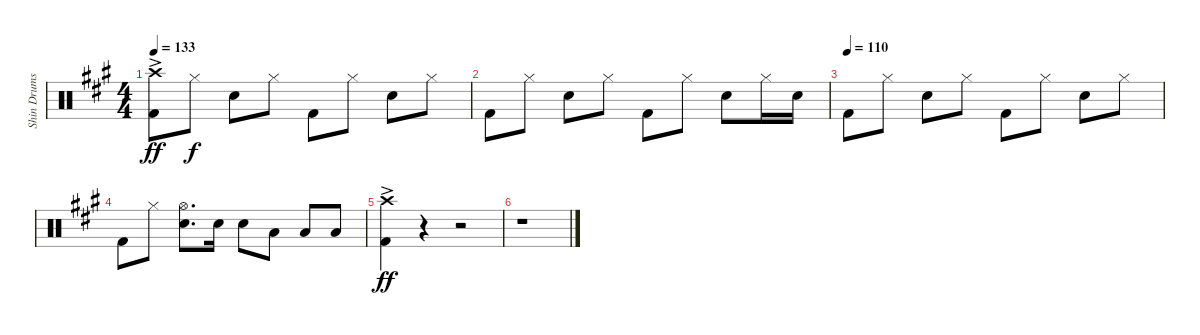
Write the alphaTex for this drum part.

\track ("Shin Drums" "Shin Drums") {instrument percussion}
\staff {score}
\articulation defaults
\ts (4 4)
\tempo 133
\clef neutral
\ks a
("Crash high (hit)"{ac} "Kick (hit) 2").8{dy ff} "Hi-Hat (closed)".8{dy f} "Snare (hit) 2".8 "Hi-Hat (closed)".8 "Kick (hit) 2".8 "Hi-Hat (closed)".8 "Snare (hit) 2".8 "Hi-Hat (closed)".8 |
"Kick (hit) 2".8 "Hi-Hat (closed)".8 "Snare (hit) 2".8 "Hi-Hat (closed)".8 "Kick (hit) 2".8 "Hi-Hat (closed)".8 "Snare (hit) 2".8 "Hi-Hat (closed)".16 "Snare (hit) 2".16 |
\tempo (110)
"Kick (hit) 2".8 "Hi-Hat (closed)".8 "Snare (hit) 2".8 "Hi-Hat (closed)".8 "Kick (hit) 2".8 "Hi-Hat (closed)".8 "Snare (hit) 2".8 "Hi-Hat (closed)".8 |
"Kick (hit) 2".8 "Hi-Hat (closed)".8 ("Hi-Hat (open)" "Snare (hit) 2").8{d} "Snare (hit) 2".16 "Snare (hit) 2".8 "Low Tom (hit)".8 "Low Tom (hit)".8 "Low Floor Tom (hit)".8 |
("Crash high (hit)"{ac} "Kick (hit) 2").4{dy ff} r.4 r.2 |
r.1
